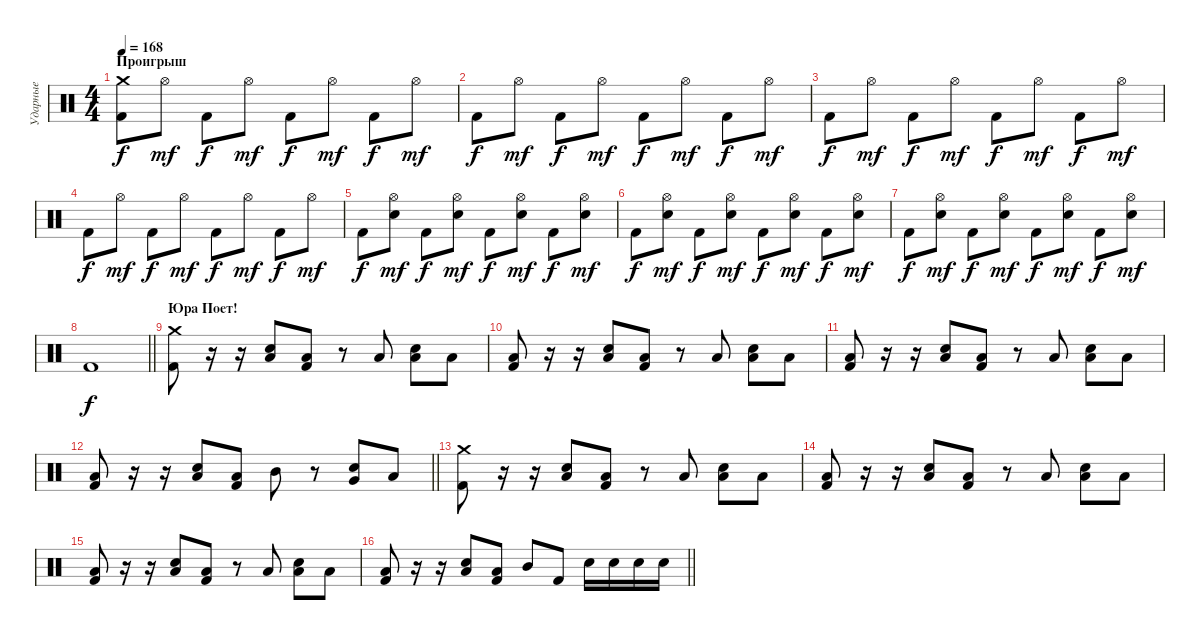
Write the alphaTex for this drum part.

\track ("Ударные" "Ударные") {instrument percussion}
\staff {score}
\articulation defaults
\ts (4 4)
\section ("" "Проигрыш")
\tempo 168
\clef neutral
\ks c
("Kick (hit) 2" "Crash medium (hit)").8{dy f} "Hi-Hat (open)".8{dy mf} "Kick (hit) 2".8{dy f} "Hi-Hat (open)".8{dy mf} "Kick (hit) 2".8{dy f} "Hi-Hat (open)".8{dy mf} "Kick (hit) 2".8{dy f} "Hi-Hat (open)".8{dy mf} |
"Kick (hit) 2".8{dy f} "Hi-Hat (open)".8{dy mf} "Kick (hit) 2".8{dy f} "Hi-Hat (open)".8{dy mf} "Kick (hit) 2".8{dy f} "Hi-Hat (open)".8{dy mf} "Kick (hit) 2".8{dy f} "Hi-Hat (open)".8{dy mf} |
"Kick (hit) 2".8{dy f} "Hi-Hat (open)".8{dy mf} "Kick (hit) 2".8{dy f} "Hi-Hat (open)".8{dy mf} "Kick (hit) 2".8{dy f} "Hi-Hat (open)".8{dy mf} "Kick (hit) 2".8{dy f} "Hi-Hat (open)".8{dy mf} |
"Kick (hit) 2".8{dy f} "Hi-Hat (open)".8{dy mf} "Kick (hit) 2".8{dy f} "Hi-Hat (open)".8{dy mf} "Kick (hit) 2".8{dy f} "Hi-Hat (open)".8{dy mf} "Kick (hit) 2".8{dy f} "Hi-Hat (open)".8{dy mf} |
"Kick (hit) 2".8{dy f} ("Snare (hit) 2" "Hi-Hat (open)").8{dy mf} "Kick (hit) 2".8{dy f} ("Snare (hit) 2" "Hi-Hat (open)").8{dy mf} "Kick (hit) 2".8{dy f} ("Snare (hit) 2" "Hi-Hat (open)").8{dy mf} "Kick (hit) 2".8{dy f} ("Snare (hit) 2" "Hi-Hat (open)").8{dy mf} |
"Kick (hit) 2".8{dy f} ("Snare (hit) 2" "Hi-Hat (open)").8{dy mf} "Kick (hit) 2".8{dy f} ("Snare (hit) 2" "Hi-Hat (open)").8{dy mf} "Kick (hit) 2".8{dy f} ("Snare (hit) 2" "Hi-Hat (open)").8{dy mf} "Kick (hit) 2".8{dy f} ("Snare (hit) 2" "Hi-Hat (open)").8{dy mf} |
"Kick (hit) 2".8{dy f} ("Snare (hit) 2" "Hi-Hat (open)").8{dy mf} "Kick (hit) 2".8{dy f} ("Snare (hit) 2" "Hi-Hat (open)").8{dy mf} "Kick (hit) 2".8{dy f} ("Snare (hit) 2" "Hi-Hat (open)").8{dy mf} "Kick (hit) 2".8{dy f} ("Snare (hit) 2" "Hi-Hat (open)").8{dy mf} |
\barLineRight lightlight "Kick (hit) 2".1{dy f}
|
\section ("" "Юра Поет!")
("Crash medium (hit)" "Kick (hit) 2").8 r.16 r.16 ("Low Tom (hit)" "Snare (hit) 2").8 ("Low Floor Tom (hit)" "Kick (hit) 2").8 r.8 "Low Floor Tom (hit)".8 ("Low Tom (hit)" "Snare (hit) 2").8 "Low Floor Tom (hit)".8 |
("Low Tom (hit)" "Kick (hit) 2").8 r.16 r.16 ("Low Tom (hit)" "Snare (hit) 2").8 ("Low Floor Tom (hit)" "Kick (hit) 2").8 r.8 "Low Floor Tom (hit)".8 ("Low Tom (hit)" "Snare (hit) 2").8 "Low Floor Tom (hit)".8 |
("Low Tom (hit)" "Kick (hit) 2").8 r.16 r.16 ("Low Tom (hit)" "Snare (hit) 2").8 ("Low Floor Tom (hit)" "Kick (hit) 2").8 r.8 "Low Floor Tom (hit)".8 ("Low Tom (hit)" "Snare (hit) 2").8 "Low Floor Tom (hit)".8 |
\barLineRight lightlight
("Low Tom (hit)" "Kick (hit) 2").8 r.16 r.16 ("Low Tom (hit)" "Snare (hit) 2").8 ("Low Floor Tom (hit)" "Kick (hit) 2").8 "Mid Tom (hit)".8 r.8 ("Very Low Tom (hit)" "Snare (hit) 2").8 "Low Floor Tom (hit)".8 |
("Crash medium (hit)" "Kick (hit) 2").8 r.16 r.16 ("Low Tom (hit)" "Snare (hit) 2").8 ("Low Floor Tom (hit)" "Kick (hit) 2").8 r.8 "Low Floor Tom (hit)".8 ("Low Tom (hit)" "Snare (hit) 2").8 "Low Floor Tom (hit)".8 |
("Low Tom (hit)" "Kick (hit) 2").8 r.16 r.16 ("Low Tom (hit)" "Snare (hit) 2").8 ("Low Floor Tom (hit)" "Kick (hit) 2").8 r.8 "Low Floor Tom (hit)".8 ("Low Tom (hit)" "Snare (hit) 2").8 "Low Floor Tom (hit)".8 |
("Low Tom (hit)" "Kick (hit) 2").8 r.16 r.16 ("Low Tom (hit)" "Snare (hit) 2").8 ("Low Floor Tom (hit)" "Kick (hit) 2").8 r.8 "Low Floor Tom (hit)".8 ("Low Tom (hit)" "Snare (hit) 2").8 "Low Floor Tom (hit)".8 |
\barLineRight lightlight
("Low Tom (hit)" "Kick (hit) 2").8 r.16 r.16 ("Low Tom (hit)" "Snare (hit) 2").8 ("Low Floor Tom (hit)" "Kick (hit) 2").8 "Mid Tom (hit)".8 "Kick (hit) 2".8 "Snare (hit) 2".16 "Snare (hit) 2".16 "Snare (hit) 2".16 "Snare (hit) 2".16
